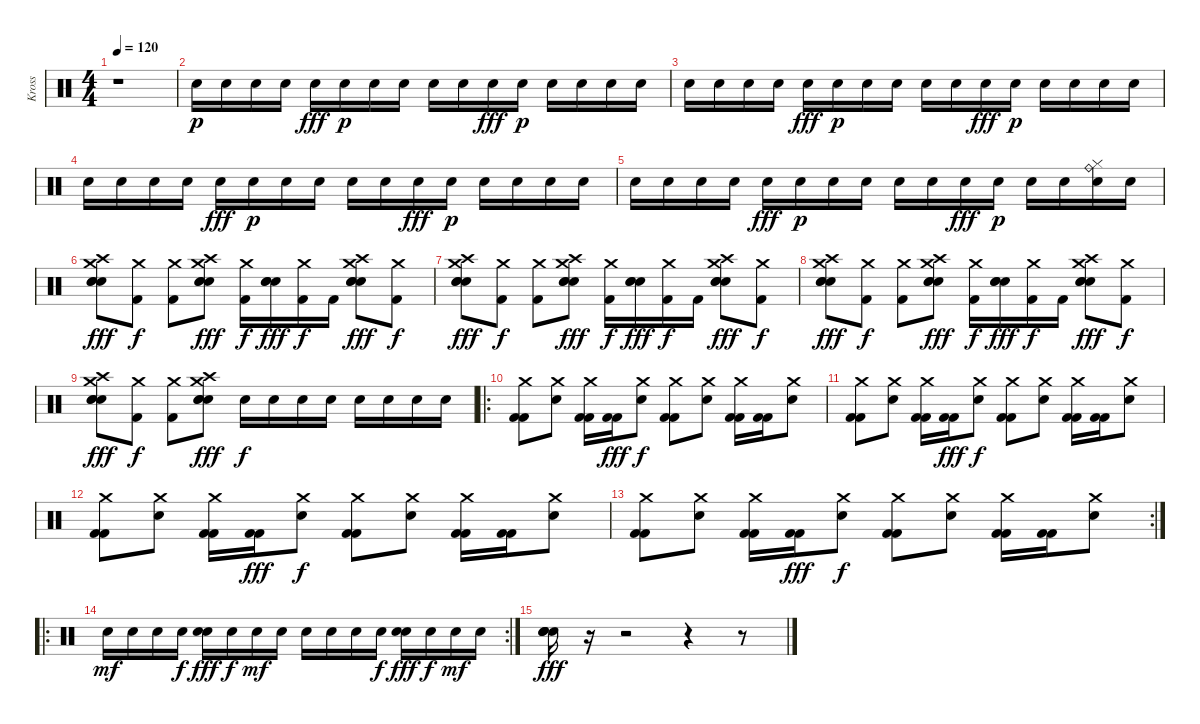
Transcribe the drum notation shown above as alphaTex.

\track ("Kross" "Kross") {instrument percussion}
\staff {score}
\articulation defaults
\ts (4 4)
\tempo 120
\clef neutral
\ks c
r.1{dy f} |
"Snare (hit) 2".16{dy p} "Snare (hit) 2".16 "Snare (hit) 2".16 "Snare (hit) 2".16 "Snare (hit) 2".16{dy fff} "Snare (hit) 2".16{dy p} "Snare (hit) 2".16 "Snare (hit) 2".16 "Snare (hit) 2".16 "Snare (hit) 2".16 "Snare (hit) 2".16{dy fff} "Snare (hit) 2".16{dy p} "Snare (hit) 2".16 "Snare (hit) 2".16 "Snare (hit) 2".16 "Snare (hit) 2".16 |
"Snare (hit) 2".16 "Snare (hit) 2".16 "Snare (hit) 2".16 "Snare (hit) 2".16 "Snare (hit) 2".16{dy fff} "Snare (hit) 2".16{dy p} "Snare (hit) 2".16 "Snare (hit) 2".16 "Snare (hit) 2".16 "Snare (hit) 2".16 "Snare (hit) 2".16{dy fff} "Snare (hit) 2".16{dy p} "Snare (hit) 2".16 "Snare (hit) 2".16 "Snare (hit) 2".16 "Snare (hit) 2".16 |
"Snare (hit) 2".16 "Snare (hit) 2".16 "Snare (hit) 2".16 "Snare (hit) 2".16 "Snare (hit) 2".16{dy fff} "Snare (hit) 2".16{dy p} "Snare (hit) 2".16 "Snare (hit) 2".16 "Snare (hit) 2".16 "Snare (hit) 2".16 "Snare (hit) 2".16{dy fff} "Snare (hit) 2".16{dy p} "Snare (hit) 2".16 "Snare (hit) 2".16 "Snare (hit) 2".16 "Snare (hit) 2".16 |
"Snare (hit) 2".16 "Snare (hit) 2".16 "Snare (hit) 2".16 "Snare (hit) 2".16 "Snare (hit) 2".16{dy fff} "Snare (hit) 2".16{dy p} "Snare (hit) 2".16 "Snare (hit) 2".16 "Snare (hit) 2".16 "Snare (hit) 2".16 "Snare (hit) 2".16{dy fff} "Snare (hit) 2".16{dy p} "Snare (hit) 2".16 "Snare (hit) 2".16 ("Ride (bell)" "Hi-Hat (closed)" "Snare (hit) 2").16 "Snare (hit) 2".16 |
("Crash high (hit)" "Crash medium (hit)" "Electric Snare (hit)" "Electric Snare (hit)" "Electric Snare (hit)").8{dy fff} ("Crash medium (hit)" "Kick (hit) 2").8{dy f} ("Crash medium (hit)" "Kick (hit) 2").8 ("Crash high (hit)" "Crash medium (hit)" "Electric Snare (hit)" "Electric Snare (hit)" "Electric Snare (hit)").8{dy fff} ("Crash medium (hit)" "Kick (hit) 2").16{dy f} ("Electric Snare (hit)" "Electric Snare (hit)" "Electric Snare (hit)").16{dy fff} ("Crash medium (hit)" "Kick (hit) 2").16{dy f} "Kick (hit) 2".16 ("Crash high (hit)" "Crash medium (hit)" "Electric Snare (hit)" "Electric Snare (hit)" "Electric Snare (hit)").8{dy fff} ("Crash medium (hit)" "Kick (hit) 2").8{dy f} |
("Crash high (hit)" "Crash medium (hit)" "Electric Snare (hit)" "Electric Snare (hit)" "Electric Snare (hit)").8{dy fff} ("Crash medium (hit)" "Kick (hit) 2").8{dy f} ("Crash medium (hit)" "Kick (hit) 2").8 ("Crash high (hit)" "Crash medium (hit)" "Electric Snare (hit)" "Electric Snare (hit)" "Electric Snare (hit)").8{dy fff} ("Crash medium (hit)" "Kick (hit) 2").16{dy f} ("Electric Snare (hit)" "Electric Snare (hit)" "Electric Snare (hit)").16{dy fff} ("Crash medium (hit)" "Kick (hit) 2").16{dy f} "Kick (hit) 2".16 ("Crash high (hit)" "Crash medium (hit)" "Electric Snare (hit)" "Electric Snare (hit)" "Electric Snare (hit)").8{dy fff} ("Crash medium (hit)" "Kick (hit) 2").8{dy f} |
("Crash high (hit)" "Crash medium (hit)" "Electric Snare (hit)" "Electric Snare (hit)" "Electric Snare (hit)").8{dy fff} ("Crash medium (hit)" "Kick (hit) 2").8{dy f} ("Crash medium (hit)" "Kick (hit) 2").8 ("Crash high (hit)" "Crash medium (hit)" "Electric Snare (hit)" "Electric Snare (hit)" "Electric Snare (hit)").8{dy fff} ("Crash medium (hit)" "Kick (hit) 2").16{dy f} ("Electric Snare (hit)" "Electric Snare (hit)" "Electric Snare (hit)").16{dy fff} ("Crash medium (hit)" "Kick (hit) 2").16{dy f} "Kick (hit) 2".16 ("Crash high (hit)" "Crash medium (hit)" "Electric Snare (hit)" "Electric Snare (hit)" "Electric Snare (hit)").8{dy fff} ("Crash medium (hit)" "Kick (hit) 2").8{dy f} |
("Crash high (hit)" "Crash medium (hit)" "Electric Snare (hit)" "Electric Snare (hit)" "Electric Snare (hit)").8{dy fff} ("Crash medium (hit)" "Kick (hit) 2").8{dy f} ("Crash medium (hit)" "Kick (hit) 2").8 ("Crash high (hit)" "Crash medium (hit)" "Electric Snare (hit)" "Electric Snare (hit)" "Electric Snare (hit)").8{dy fff} "Electric Snare (hit)".16{dy f} "Electric Snare (hit)".16 "Electric Snare (hit)".16 "Electric Snare (hit)".16 "Electric Snare (hit)".16 "Electric Snare (hit)".16 "Electric Snare (hit)".16 "Electric Snare (hit)".16 |
\ro
("Kick (hit) 2" "Kick (hit) 2" "Crash medium (hit)").8 ("Crash medium (hit)" "Snare (hit) 2").8 ("Kick (hit) 2" "Kick (hit) 2" "Crash medium (hit)").16 ("Kick (hit) 2" "Kick (hit) 2").16{dy fff} ("Crash medium (hit)" "Snare (hit) 2").8{dy f} ("Kick (hit) 2" "Kick (hit) 2" "Crash medium (hit)").8 ("Crash medium (hit)" "Snare (hit) 2").8 ("Kick (hit) 2" "Kick (hit) 2" "Crash medium (hit)").16 ("Kick (hit) 2" "Kick (hit) 2").16 ("Crash medium (hit)" "Snare (hit) 2").8 |
("Kick (hit) 2" "Kick (hit) 2" "Crash medium (hit)").8 ("Crash medium (hit)" "Snare (hit) 2").8 ("Kick (hit) 2" "Kick (hit) 2" "Crash medium (hit)").16 ("Kick (hit) 2" "Kick (hit) 2").16{dy fff} ("Crash medium (hit)" "Snare (hit) 2").8{dy f} ("Kick (hit) 2" "Kick (hit) 2" "Crash medium (hit)").8 ("Crash medium (hit)" "Snare (hit) 2").8 ("Kick (hit) 2" "Kick (hit) 2" "Crash medium (hit)").16 ("Kick (hit) 2" "Kick (hit) 2").16 ("Crash medium (hit)" "Snare (hit) 2").8 |
("Kick (hit) 2" "Kick (hit) 2" "Crash medium (hit)").8 ("Crash medium (hit)" "Snare (hit) 2").8 ("Kick (hit) 2" "Kick (hit) 2" "Crash medium (hit)").16 ("Kick (hit) 2" "Kick (hit) 2").16{dy fff} ("Crash medium (hit)" "Snare (hit) 2").8{dy f} ("Kick (hit) 2" "Kick (hit) 2" "Crash medium (hit)").8 ("Crash medium (hit)" "Snare (hit) 2").8 ("Kick (hit) 2" "Kick (hit) 2" "Crash medium (hit)").16 ("Kick (hit) 2" "Kick (hit) 2").16 ("Crash medium (hit)" "Snare (hit) 2").8 |
\rc 2
("Kick (hit) 2" "Kick (hit) 2" "Crash medium (hit)").8 ("Crash medium (hit)" "Snare (hit) 2").8 ("Kick (hit) 2" "Kick (hit) 2" "Crash medium (hit)").16 ("Kick (hit) 2" "Kick (hit) 2").16{dy fff} ("Crash medium (hit)" "Snare (hit) 2").8{dy f} ("Kick (hit) 2" "Kick (hit) 2" "Crash medium (hit)").8 ("Crash medium (hit)" "Snare (hit) 2").8 ("Kick (hit) 2" "Kick (hit) 2" "Crash medium (hit)").16 ("Kick (hit) 2" "Kick (hit) 2").16 ("Crash medium (hit)" "Snare (hit) 2").8 |
\ro
\rc 2 "Snare (hit) 2".16{dy mf} "Snare (hit) 2".16 "Snare (hit) 2".16 "Snare (hit) 2".16{dy f}
("Snare (hit) 2" "Snare (hit) 2").16{dy fff} "Snare (hit) 2".16{dy f} "Snare (hit) 2".16{dy mf} "Snare (hit) 2".16 "Snare (hit) 2".16 "Snare (hit) 2".16 "Snare (hit) 2".16 "Snare (hit) 2".16{dy f} ("Snare (hit) 2" "Snare (hit) 2").16{dy fff} "Snare (hit) 2".16{dy f} "Snare (hit) 2".16{dy mf} "Snare (hit) 2".16 |
("Snare (hit) 2" "Snare (hit) 2" "Snare (hit) 2" "Snare (hit) 2").16{dy fff} r.16 r.2 r.4 r.8
